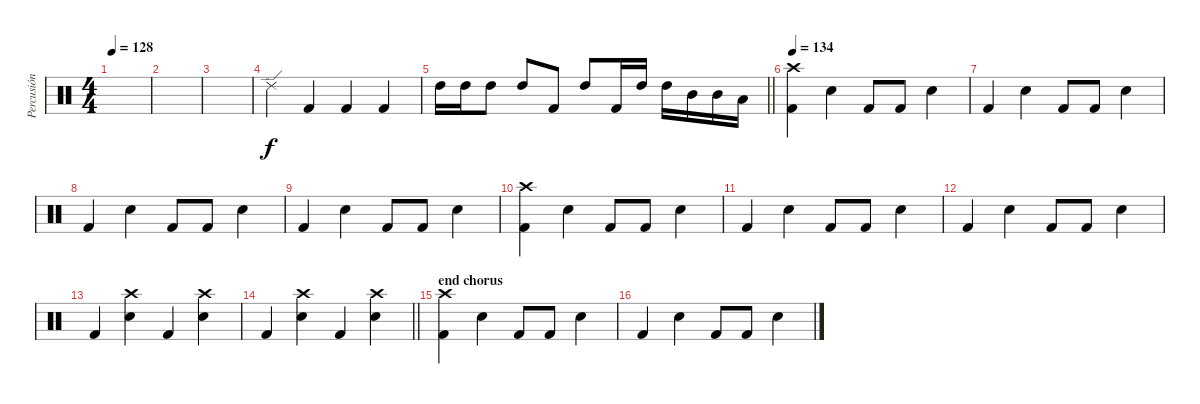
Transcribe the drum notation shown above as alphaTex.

\track ("Percusión" "Percusión") {instrument percussion}
\staff {score}
\articulation defaults
\ts (4 4)
\tempo 128
\clef neutral
\ks c
|
|
|
"Ride (edge) 2".4 "Kick (hit) 2".4 "Kick (hit) 2".4 "Kick (hit) 2".4 |
\barLineRight lightlight "High Tom (hit)".16 "High Tom (hit)".16 "High Tom (hit)".8 "High Tom (hit)".8 "Kick (hit) 2".8 "High Tom (hit)".8 "Kick (hit) 2".16 "High Tom (hit)".16 "High Tom (hit)".16 "Mid Tom (hit)".16 "Mid Tom (hit)".16 "Low Tom (hit)".16
|
\tempo 134
("Crash high (hit)" "Kick (hit) 2").4 "Electric Snare (hit)".4 "Kick (hit) 2".8 "Kick (hit) 2".8 "Electric Snare (hit)".4 |
"Kick (hit) 2".4 "Electric Snare (hit)".4 "Kick (hit) 2".8 "Kick (hit) 2".8 "Electric Snare (hit)".4 |
"Kick (hit) 2".4 "Electric Snare (hit)".4 "Kick (hit) 2".8 "Kick (hit) 2".8 "Electric Snare (hit)".4 |
"Kick (hit) 2".4 "Electric Snare (hit)".4 "Kick (hit) 2".8 "Kick (hit) 2".8 "Electric Snare (hit)".4 |
("Crash high (hit)" "Kick (hit) 2").4 "Electric Snare (hit)".4 "Kick (hit) 2".8 "Kick (hit) 2".8 "Electric Snare (hit)".4 |
"Kick (hit) 2".4 "Electric Snare (hit)".4 "Kick (hit) 2".8 "Kick (hit) 2".8 "Electric Snare (hit)".4 |
"Kick (hit) 2".4 "Electric Snare (hit)".4 "Kick (hit) 2".8 "Kick (hit) 2".8 "Electric Snare (hit)".4 |
"Kick (hit) 2".4 ("Crash high (hit)" "Electric Snare (hit)").4 "Kick (hit) 2".4 ("Crash high (hit)" "Electric Snare (hit)").4 |
\barLineRight lightlight "Kick (hit) 2".4
("Crash high (hit)" "Electric Snare (hit)").4 "Kick (hit) 2".4 ("Crash high (hit)" "Electric Snare (hit)").4 |
\section ("" "end chorus")
("Crash high (hit)" "Kick (hit) 2").4 "Electric Snare (hit)".4 "Kick (hit) 2".8 "Kick (hit) 2".8 "Electric Snare (hit)".4 |
"Kick (hit) 2".4 "Electric Snare (hit)".4 "Kick (hit) 2".8 "Kick (hit) 2".8 "Electric Snare (hit)".4
